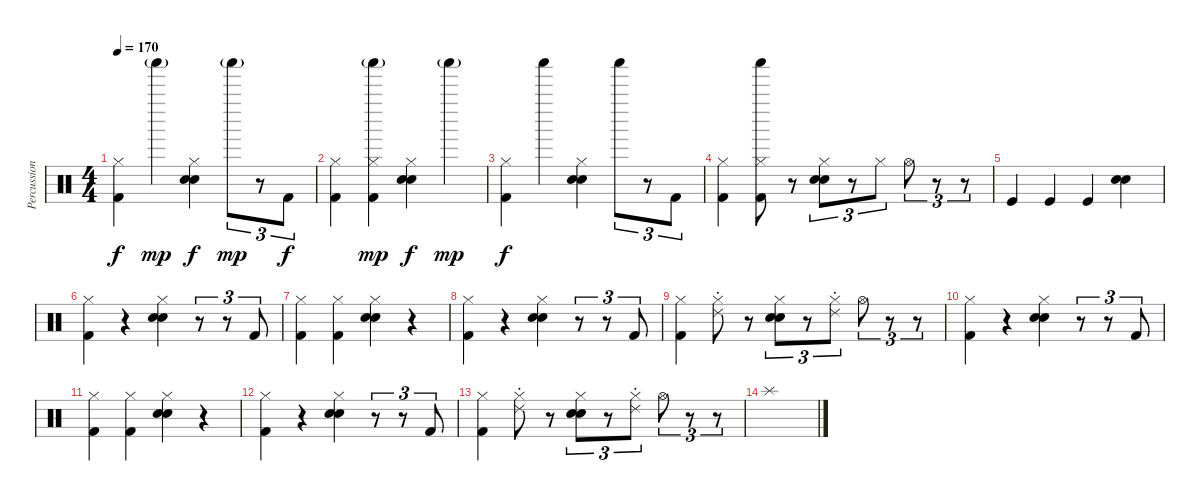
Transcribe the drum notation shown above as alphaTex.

\track ("Percussion" "Percussion") {instrument percussion}
\staff {score}
\articulation defaults
\ts (4 4)
\tempo 170
\clef neutral
\ks c
("Hi-Hat (closed)" "Kick (hit) 2").4{dy f} "Shaker (hit)"{g}.4{dy mp} ("Hi-Hat (closed)" "Hand Clap (hit)" "Electric Snare (hit)").4{dy f} "Shaker (hit)"{g}.8{tu (3 2) dy mp} r.8{tu (3 2)} "Kick (hit) 2".8{tu (3 2) dy f} |
("Hi-Hat (closed)" "Kick (hit) 2").4 ("Hi-Hat (closed)" "Shaker (hit)"{g} "Kick (hit) 2").4{dy mp} ("Hi-Hat (closed)" "Hand Clap (hit)" "Electric Snare (hit)").4{dy f} "Shaker (hit)"{g}.4{dy mp} |
("Hi-Hat (closed)" "Kick (hit) 2").4{dy f} "Shaker (hit)".4 ("Hi-Hat (closed)" "Hand Clap (hit)" "Electric Snare (hit)").4 "Shaker (hit)".8{tu (3 2)} r.8{tu (3 2)} "Kick (hit) 2".8{tu (3 2)} |
("Hi-Hat (closed)" "Kick (hit) 2").4 ("Hi-Hat (closed)" "Shaker (hit)" "Kick (hit) 2").8 r.8 ("Hi-Hat (closed)" "Hand Clap (hit)" "Electric Snare (hit)").8{tu (3 2)} r.8{tu (3 2)} "Hi-Hat (closed)".8{tu (3 2)} "Hi-Hat (open)".8{tu (3 2)} r.8{tu (3 2)} r.8{tu (3 2)} |
"Kick (hit)".4 "Kick (hit)".4 "Kick (hit)".4 ("Hand Clap (hit)" "Electric Snare (hit)").4 |
("Hi-Hat (closed)" "Kick (hit) 2").4 r.4 ("Hi-Hat (closed)" "Hand Clap (hit)" "Electric Snare (hit)").4 r.8{tu (3 2)} r.8{tu (3 2)} "Kick (hit) 2".8{tu (3 2)} |
("Hi-Hat (closed)" "Kick (hit) 2").4 ("Hi-Hat (closed)" "Kick (hit) 2").4 ("Hi-Hat (closed)" "Hand Clap (hit)" "Electric Snare (hit)").4 r.4 |
("Hi-Hat (closed)" "Kick (hit) 2").4 r.4 ("Hi-Hat (closed)" "Hand Clap (hit)" "Electric Snare (hit)").4 r.8{tu (3 2)} r.8{tu (3 2)} "Kick (hit) 2".8{tu (3 2)} |
("Hi-Hat (closed)" "Kick (hit) 2").4 ("Hi-Hat (closed)" "Ride (choke) 2").8 r.8 ("Hi-Hat (closed)" "Hand Clap (hit)" "Electric Snare (hit)").8{tu (3 2)} r.8{tu (3 2)} ("Hi-Hat (closed)" "Ride (choke) 2").8{tu (3 2)} "Hi-Hat (open)".8{tu (3 2)} r.8{tu (3 2)} r.8{tu (3 2)} |
("Hi-Hat (closed)" "Kick (hit) 2").4 r.4 ("Hi-Hat (closed)" "Hand Clap (hit)" "Electric Snare (hit)").4 r.8{tu (3 2)} r.8{tu (3 2)} "Kick (hit) 2".8{tu (3 2)} |
("Hi-Hat (closed)" "Kick (hit) 2").4 ("Hi-Hat (closed)" "Kick (hit) 2").4 ("Hi-Hat (closed)" "Hand Clap (hit)" "Electric Snare (hit)").4 r.4 |
("Hi-Hat (closed)" "Kick (hit) 2").4 r.4 ("Hi-Hat (closed)" "Hand Clap (hit)" "Electric Snare (hit)").4 r.8{tu (3 2)} r.8{tu (3 2)} "Kick (hit) 2".8{tu (3 2)} |
("Hi-Hat (closed)" "Kick (hit) 2").4 ("Hi-Hat (closed)" "Ride (choke) 2").8 r.8 ("Hi-Hat (closed)" "Hand Clap (hit)" "Electric Snare (hit)").8{tu (3 2)} r.8{tu (3 2)} ("Hi-Hat (closed)" "Ride (choke) 2").8{tu (3 2)} "Hi-Hat (open)".8{tu (3 2)} r.8{tu (3 2)} r.8{tu (3 2)} |
"Splash (hit)".1
